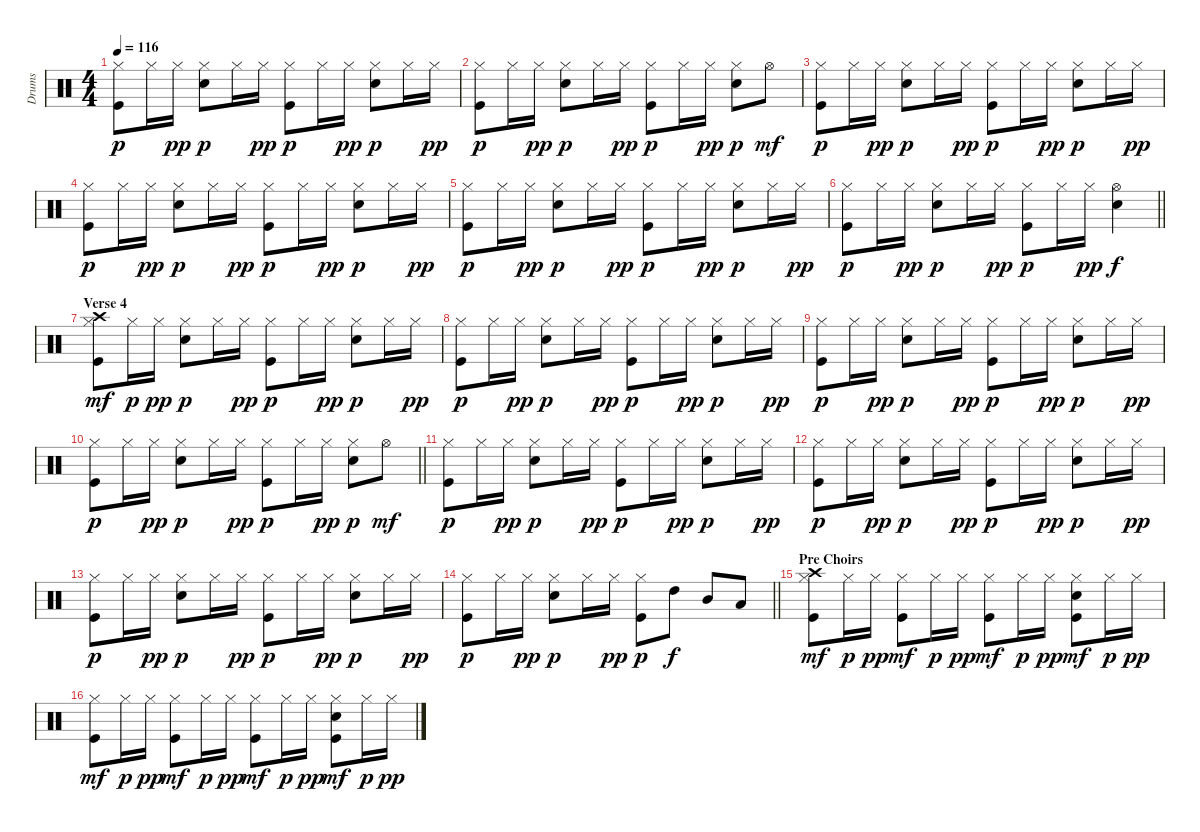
\track ("Drums" "Drums") {instrument percussion}
\staff {score}
\articulation defaults
\ts (4 4)
\tempo 116
\clef neutral
\ks c
("Hi-Hat (closed)" "Kick (hit)").8{dy p} "Hi-Hat (closed)".16 "Hi-Hat (closed)".16{dy pp} ("Hi-Hat (closed)" "Snare (hit) 2").8{dy p} "Hi-Hat (closed)".16 "Hi-Hat (closed)".16{dy pp} ("Hi-Hat (closed)" "Kick (hit)").8{dy p} "Hi-Hat (closed)".16 "Hi-Hat (closed)".16{dy pp} ("Hi-Hat (closed)" "Snare (hit) 2").8{dy p} "Hi-Hat (closed)".16 "Hi-Hat (closed)".16{dy pp} |
("Hi-Hat (closed)" "Kick (hit)").8{dy p} "Hi-Hat (closed)".16 "Hi-Hat (closed)".16{dy pp} ("Hi-Hat (closed)" "Snare (hit) 2").8{dy p} "Hi-Hat (closed)".16 "Hi-Hat (closed)".16{dy pp} ("Hi-Hat (closed)" "Kick (hit)").8{dy p} "Hi-Hat (closed)".16 "Hi-Hat (closed)".16{dy pp} ("Hi-Hat (closed)" "Snare (hit) 2").8{dy p} "Hi-Hat (open)".8{dy mf} |
("Hi-Hat (closed)" "Kick (hit)").8{dy p} "Hi-Hat (closed)".16 "Hi-Hat (closed)".16{dy pp} ("Hi-Hat (closed)" "Snare (hit) 2").8{dy p} "Hi-Hat (closed)".16 "Hi-Hat (closed)".16{dy pp} ("Hi-Hat (closed)" "Kick (hit)").8{dy p} "Hi-Hat (closed)".16 "Hi-Hat (closed)".16{dy pp} ("Hi-Hat (closed)" "Snare (hit) 2").8{dy p} "Hi-Hat (closed)".16 "Hi-Hat (closed)".16{dy pp} |
("Hi-Hat (closed)" "Kick (hit)").8{dy p} "Hi-Hat (closed)".16 "Hi-Hat (closed)".16{dy pp} ("Hi-Hat (closed)" "Snare (hit) 2").8{dy p} "Hi-Hat (closed)".16 "Hi-Hat (closed)".16{dy pp} ("Hi-Hat (closed)" "Kick (hit)").8{dy p} "Hi-Hat (closed)".16 "Hi-Hat (closed)".16{dy pp} ("Hi-Hat (closed)" "Snare (hit) 2").8{dy p} "Hi-Hat (closed)".16 "Hi-Hat (closed)".16{dy pp} |
("Hi-Hat (closed)" "Kick (hit)").8{dy p} "Hi-Hat (closed)".16 "Hi-Hat (closed)".16{dy pp} ("Hi-Hat (closed)" "Snare (hit) 2").8{dy p} "Hi-Hat (closed)".16 "Hi-Hat (closed)".16{dy pp} ("Hi-Hat (closed)" "Kick (hit)").8{dy p} "Hi-Hat (closed)".16 "Hi-Hat (closed)".16{dy pp} ("Hi-Hat (closed)" "Snare (hit) 2").8{dy p} "Hi-Hat (closed)".16 "Hi-Hat (closed)".16{dy pp} |
\barLineRight lightlight
("Hi-Hat (closed)" "Kick (hit)").8{dy p} "Hi-Hat (closed)".16 "Hi-Hat (closed)".16{dy pp} ("Hi-Hat (closed)" "Snare (hit) 2").8{dy p} "Hi-Hat (closed)".16 "Hi-Hat (closed)".16{dy pp} ("Hi-Hat (closed)" "Kick (hit)").8{dy p} "Hi-Hat (closed)".16 "Hi-Hat (closed)".16{dy pp} ("Hi-Hat (open)" "Snare (hit) 2").4{dy f} |
\section ("" "Verse 4")
("Hi-Hat (closed)" "Crash high (hit)" "Kick (hit)").8{dy mf} "Hi-Hat (closed)".16{dy p} "Hi-Hat (closed)".16{dy pp} ("Hi-Hat (closed)" "Snare (hit) 2").8{dy p} "Hi-Hat (closed)".16 "Hi-Hat (closed)".16{dy pp} ("Hi-Hat (closed)" "Kick (hit)").8{dy p} "Hi-Hat (closed)".16 "Hi-Hat (closed)".16{dy pp} ("Hi-Hat (closed)" "Snare (hit) 2").8{dy p} "Hi-Hat (closed)".16 "Hi-Hat (closed)".16{dy pp} |
("Hi-Hat (closed)" "Kick (hit)").8{dy p} "Hi-Hat (closed)".16 "Hi-Hat (closed)".16{dy pp} ("Hi-Hat (closed)" "Snare (hit) 2").8{dy p} "Hi-Hat (closed)".16 "Hi-Hat (closed)".16{dy pp} ("Hi-Hat (closed)" "Kick (hit)").8{dy p} "Hi-Hat (closed)".16 "Hi-Hat (closed)".16{dy pp} ("Hi-Hat (closed)" "Snare (hit) 2").8{dy p} "Hi-Hat (closed)".16 "Hi-Hat (closed)".16{dy pp} |
("Hi-Hat (closed)" "Kick (hit)").8{dy p} "Hi-Hat (closed)".16 "Hi-Hat (closed)".16{dy pp} ("Hi-Hat (closed)" "Snare (hit) 2").8{dy p} "Hi-Hat (closed)".16 "Hi-Hat (closed)".16{dy pp} ("Hi-Hat (closed)" "Kick (hit)").8{dy p} "Hi-Hat (closed)".16 "Hi-Hat (closed)".16{dy pp} ("Hi-Hat (closed)" "Snare (hit) 2").8{dy p} "Hi-Hat (closed)".16 "Hi-Hat (closed)".16{dy pp} |
\barLineRight lightlight
("Hi-Hat (closed)" "Kick (hit)").8{dy p} "Hi-Hat (closed)".16 "Hi-Hat (closed)".16{dy pp} ("Hi-Hat (closed)" "Snare (hit) 2").8{dy p} "Hi-Hat (closed)".16 "Hi-Hat (closed)".16{dy pp} ("Hi-Hat (closed)" "Kick (hit)").8{dy p} "Hi-Hat (closed)".16 "Hi-Hat (closed)".16{dy pp} ("Hi-Hat (closed)" "Snare (hit) 2").8{dy p} "Hi-Hat (open)".8{dy mf} |
("Hi-Hat (closed)" "Kick (hit)").8{dy p} "Hi-Hat (closed)".16 "Hi-Hat (closed)".16{dy pp} ("Hi-Hat (closed)" "Snare (hit) 2").8{dy p} "Hi-Hat (closed)".16 "Hi-Hat (closed)".16{dy pp} ("Hi-Hat (closed)" "Kick (hit)").8{dy p} "Hi-Hat (closed)".16 "Hi-Hat (closed)".16{dy pp} ("Hi-Hat (closed)" "Snare (hit) 2").8{dy p} "Hi-Hat (closed)".16 "Hi-Hat (closed)".16{dy pp} |
("Hi-Hat (closed)" "Kick (hit)").8{dy p} "Hi-Hat (closed)".16 "Hi-Hat (closed)".16{dy pp} ("Hi-Hat (closed)" "Snare (hit) 2").8{dy p} "Hi-Hat (closed)".16 "Hi-Hat (closed)".16{dy pp} ("Hi-Hat (closed)" "Kick (hit)").8{dy p} "Hi-Hat (closed)".16 "Hi-Hat (closed)".16{dy pp} ("Hi-Hat (closed)" "Snare (hit) 2").8{dy p} "Hi-Hat (closed)".16 "Hi-Hat (closed)".16{dy pp} |
("Hi-Hat (closed)" "Kick (hit)").8{dy p} "Hi-Hat (closed)".16 "Hi-Hat (closed)".16{dy pp} ("Hi-Hat (closed)" "Snare (hit) 2").8{dy p} "Hi-Hat (closed)".16 "Hi-Hat (closed)".16{dy pp} ("Hi-Hat (closed)" "Kick (hit)").8{dy p} "Hi-Hat (closed)".16 "Hi-Hat (closed)".16{dy pp} ("Hi-Hat (closed)" "Snare (hit) 2").8{dy p} "Hi-Hat (closed)".16 "Hi-Hat (closed)".16{dy pp} |
\barLineRight lightlight
("Hi-Hat (closed)" "Kick (hit)").8{dy p} "Hi-Hat (closed)".16 "Hi-Hat (closed)".16{dy pp} ("Hi-Hat (closed)" "Snare (hit) 2").8{dy p} "Hi-Hat (closed)".16 "Hi-Hat (closed)".16{dy pp} ("Hi-Hat (closed)" "Kick (hit)").8{dy p} "High Tom (hit)".8{dy f} "Mid Tom (hit)".8 "Low Tom (hit)".8 |
\section ("" "Pre Choirs")
("Hi-Hat (closed)" "Crash high (hit)" "Kick (hit)").8{dy mf} "Hi-Hat (closed)".16{dy p} "Hi-Hat (closed)".16{dy pp} ("Hi-Hat (closed)" "Kick (hit)").8{dy mf} "Hi-Hat (closed)".16{dy p} "Hi-Hat (closed)".16{dy pp} ("Hi-Hat (closed)" "Kick (hit)").8{dy mf} "Hi-Hat (closed)".16{dy p} "Hi-Hat (closed)".16{dy pp} ("Hi-Hat (closed)" "Snare (hit) 2" "Kick (hit)").8{dy mf} "Hi-Hat (closed)".16{dy p} "Hi-Hat (closed)".16{dy pp} |
("Hi-Hat (closed)" "Kick (hit)").8{dy mf} "Hi-Hat (closed)".16{dy p} "Hi-Hat (closed)".16{dy pp} ("Hi-Hat (closed)" "Kick (hit)").8{dy mf} "Hi-Hat (closed)".16{dy p} "Hi-Hat (closed)".16{dy pp} ("Hi-Hat (closed)" "Kick (hit)").8{dy mf} "Hi-Hat (closed)".16{dy p} "Hi-Hat (closed)".16{dy pp} ("Hi-Hat (closed)" "Snare (hit) 2" "Kick (hit)").8{dy mf} "Hi-Hat (closed)".16{dy p} "Hi-Hat (closed)".16{dy pp}
